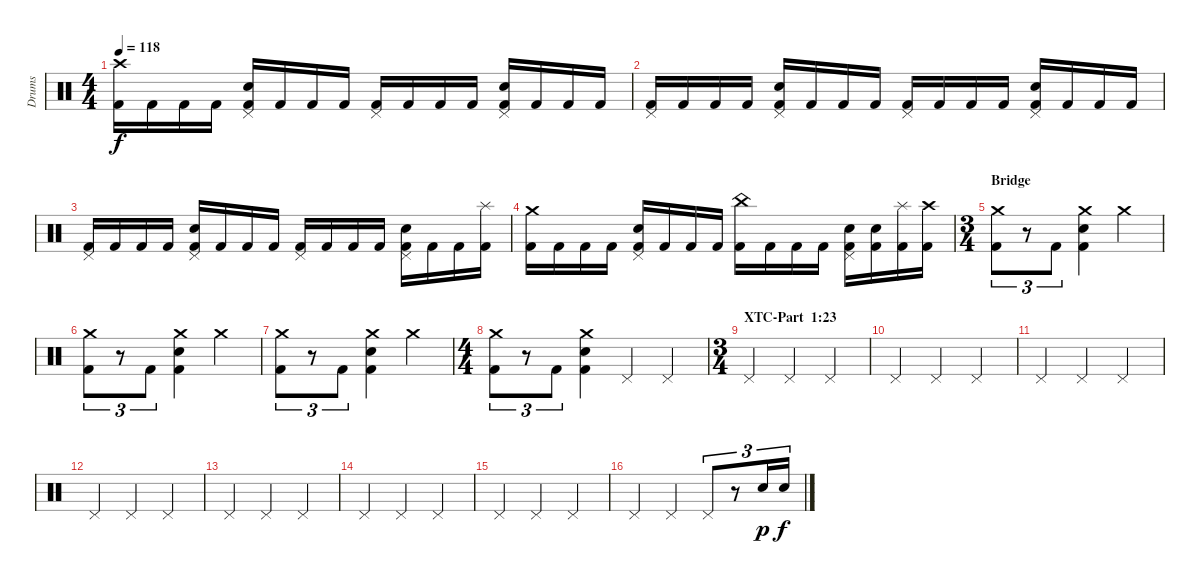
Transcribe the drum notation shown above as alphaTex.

\track ("Drums" "Drums") {instrument percussion}
\staff {score}
\articulation defaults
\ts (4 4)
\tempo 118
\clef neutral
\ks c
("Crash high (hit)" "Kick (hit) 2").16{dy f} "Kick (hit) 2".16 "Kick (hit) 2".16 "Kick (hit) 2".16 ("Pedal Hi-Hat (hit)" "Electric Snare (hit)" "Kick (hit) 2").16 "Kick (hit) 2".16 "Kick (hit) 2".16 "Kick (hit) 2".16 ("Pedal Hi-Hat (hit)" "Kick (hit) 2").16 "Kick (hit) 2".16 "Kick (hit) 2".16 "Kick (hit) 2".16 ("Pedal Hi-Hat (hit)" "Electric Snare (hit)" "Kick (hit) 2").16 "Kick (hit) 2".16 "Kick (hit) 2".16 "Kick (hit) 2".16 |
("Pedal Hi-Hat (hit)" "Kick (hit) 2").16 "Kick (hit) 2".16 "Kick (hit) 2".16 "Kick (hit) 2".16 ("Pedal Hi-Hat (hit)" "Electric Snare (hit)" "Kick (hit) 2").16 "Kick (hit) 2".16 "Kick (hit) 2".16 "Kick (hit) 2".16 ("Pedal Hi-Hat (hit)" "Kick (hit) 2").16 "Kick (hit) 2".16 "Kick (hit) 2".16 "Kick (hit) 2".16 ("Pedal Hi-Hat (hit)" "Electric Snare (hit)" "Kick (hit) 2").16 "Kick (hit) 2".16 "Kick (hit) 2".16 "Kick (hit) 2".16 |
("Pedal Hi-Hat (hit)" "Kick (hit) 2").16 "Kick (hit) 2".16 "Kick (hit) 2".16 "Kick (hit) 2".16 ("Pedal Hi-Hat (hit)" "Electric Snare (hit)" "Kick (hit) 2").16 "Kick (hit) 2".16 "Kick (hit) 2".16 "Kick (hit) 2".16 ("Pedal Hi-Hat (hit)" "Kick (hit) 2").16 "Kick (hit) 2".16 "Kick (hit) 2".16 "Kick (hit) 2".16 ("Pedal Hi-Hat (hit)" "Electric Snare (hit)" "Kick (hit) 2").16 "Kick (hit) 2".16 "Kick (hit) 2".16 ("Splash (hit)" "Kick (hit) 2").16 |
("Crash medium (hit)" "Kick (hit) 2").16 "Kick (hit) 2".16 "Kick (hit) 2".16 "Kick (hit) 2".16 ("Pedal Hi-Hat (hit)" "Electric Snare (hit)" "Kick (hit) 2").16 "Kick (hit) 2".16 "Kick (hit) 2".16 "Kick (hit) 2".16 ("China (hit)" "Kick (hit) 2").16 "Kick (hit) 2".16 "Kick (hit) 2".16 "Kick (hit) 2".16 ("Pedal Hi-Hat (hit)" "Electric Snare (hit)" "Kick (hit) 2").16 ("Electric Snare (hit)" "Kick (hit) 2").16 ("Splash (hit)" "Kick (hit) 2").16 ("Crash high (hit)" "Kick (hit) 2").16 |
\ts (3 4)
\section ("" "Bridge")
("Crash medium (hit)" "Kick (hit) 2").8{tu (3 2)} r.8{tu (3 2)} "Kick (hit) 2".8{tu (3 2)} ("Crash medium (hit)" "Electric Snare (hit)" "Kick (hit) 2").4 "Crash medium (hit)".4 |
("Crash medium (hit)" "Kick (hit) 2").8{tu (3 2)} r.8{tu (3 2)} "Kick (hit) 2".8{tu (3 2)} ("Crash medium (hit)" "Electric Snare (hit)" "Kick (hit) 2").4 "Crash medium (hit)".4 |
("Crash medium (hit)" "Kick (hit) 2").8{tu (3 2)} r.8{tu (3 2)} "Kick (hit) 2".8{tu (3 2)} ("Crash medium (hit)" "Electric Snare (hit)" "Kick (hit) 2").4 "Crash medium (hit)".4 |
\ts (4 4)
("Crash medium (hit)" "Kick (hit) 2").8{tu (3 2)} r.8{tu (3 2)} "Kick (hit) 2".8{tu (3 2)} ("Crash medium (hit)" "Electric Snare (hit)" "Kick (hit) 2").4 "Pedal Hi-Hat (hit)".4 "Pedal Hi-Hat (hit)".4 |
\ts (3 4)
\section ("" "XTC-Part  1:23")
"Pedal Hi-Hat (hit)".4 "Pedal Hi-Hat (hit)".4 "Pedal Hi-Hat (hit)".4 |
"Pedal Hi-Hat (hit)".4 "Pedal Hi-Hat (hit)".4 "Pedal Hi-Hat (hit)".4 |
"Pedal Hi-Hat (hit)".4 "Pedal Hi-Hat (hit)".4 "Pedal Hi-Hat (hit)".4 |
"Pedal Hi-Hat (hit)".4 "Pedal Hi-Hat (hit)".4 "Pedal Hi-Hat (hit)".4 |
"Pedal Hi-Hat (hit)".4 "Pedal Hi-Hat (hit)".4 "Pedal Hi-Hat (hit)".4 |
"Pedal Hi-Hat (hit)".4 "Pedal Hi-Hat (hit)".4 "Pedal Hi-Hat (hit)".4 |
"Pedal Hi-Hat (hit)".4 "Pedal Hi-Hat (hit)".4 "Pedal Hi-Hat (hit)".4 |
"Pedal Hi-Hat (hit)".4 "Pedal Hi-Hat (hit)".4 "Pedal Hi-Hat (hit)".8{tu (3 2)} r.8{tu (3 2)} "Electric Snare (hit)".16{tu (3 2) dy p volume 8} "Electric Snare (hit)".16{tu (3 2) dy f}
